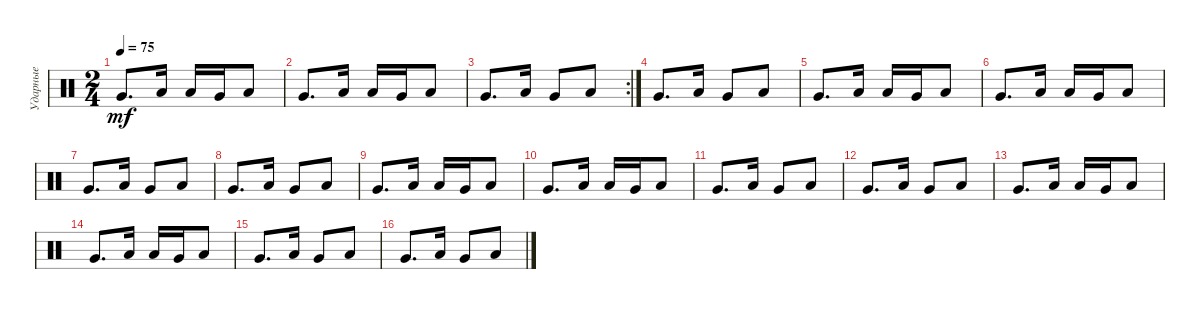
\track ("Ударные" "Ударные") {instrument percussion}
\staff {score}
\articulation defaults
\ts (2 4)
\tempo 75
\clef neutral
\ks c "Very Low Tom (hit)".8{d dy mf} "Low Tom (hit)".16 "Low Floor Tom (hit)".16 "Very Low Tom (hit)".16 "Low Tom (hit)".8
|
"Very Low Tom (hit)".8{d} "Low Tom (hit)".16 "Low Floor Tom (hit)".16 "Very Low Tom (hit)".16 "Low Tom (hit)".8 |
\rc 2 "Very Low Tom (hit)".8{d} "Low Tom (hit)".16 "Very Low Tom (hit)".8 "Low Tom (hit)".8
|
"Very Low Tom (hit)".8{d} "Low Tom (hit)".16 "Very Low Tom (hit)".8 "Low Tom (hit)".8 |
"Very Low Tom (hit)".8{d} "Low Tom (hit)".16 "Low Floor Tom (hit)".16 "Very Low Tom (hit)".16 "Low Tom (hit)".8 |
"Very Low Tom (hit)".8{d} "Low Tom (hit)".16 "Low Floor Tom (hit)".16 "Very Low Tom (hit)".16 "Low Tom (hit)".8 |
"Very Low Tom (hit)".8{d} "Low Tom (hit)".16 "Very Low Tom (hit)".8 "Low Tom (hit)".8 |
"Very Low Tom (hit)".8{d} "Low Tom (hit)".16 "Very Low Tom (hit)".8 "Low Tom (hit)".8 |
"Very Low Tom (hit)".8{d} "Low Tom (hit)".16 "Low Floor Tom (hit)".16 "Very Low Tom (hit)".16 "Low Tom (hit)".8 |
"Very Low Tom (hit)".8{d} "Low Tom (hit)".16 "Low Floor Tom (hit)".16 "Very Low Tom (hit)".16 "Low Tom (hit)".8 |
"Very Low Tom (hit)".8{d} "Low Tom (hit)".16 "Very Low Tom (hit)".8 "Low Tom (hit)".8 |
"Very Low Tom (hit)".8{d} "Low Tom (hit)".16 "Very Low Tom (hit)".8 "Low Tom (hit)".8 |
"Very Low Tom (hit)".8{d} "Low Tom (hit)".16 "Low Floor Tom (hit)".16 "Very Low Tom (hit)".16 "Low Tom (hit)".8 |
"Very Low Tom (hit)".8{d} "Low Tom (hit)".16 "Low Floor Tom (hit)".16 "Very Low Tom (hit)".16 "Low Tom (hit)".8 |
"Very Low Tom (hit)".8{d} "Low Tom (hit)".16 "Very Low Tom (hit)".8 "Low Tom (hit)".8 |
"Very Low Tom (hit)".8{d} "Low Tom (hit)".16 "Very Low Tom (hit)".8 "Low Tom (hit)".8
